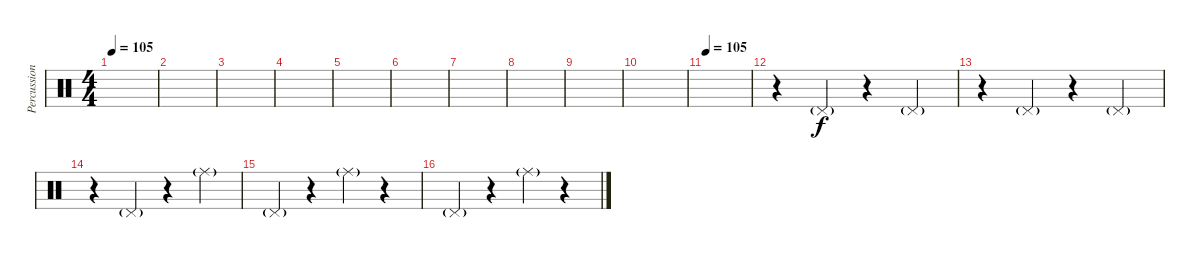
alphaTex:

\track ("Percussion" "Percussion") {instrument percussion}
\staff {score}
\articulation defaults
\ts (4 4)
\tempo 105
\clef neutral
\ks c
|
|
|
|
|
|
|
|
|
|
\tempo 105
|
r.4 "Pedal Hi-Hat (hit)"{g}.4 r.4 "Pedal Hi-Hat (hit)"{g}.4 |
r.4 "Pedal Hi-Hat (hit)"{g}.4 r.4 "Pedal Hi-Hat (hit)"{g}.4 |
r.4 "Pedal Hi-Hat (hit)"{g}.4 r.4 "Ride (middle)"{g}.4 |
"Pedal Hi-Hat (hit)"{g}.4 r.4 "Ride (middle)"{g}.4 r.4 |
"Pedal Hi-Hat (hit)"{g}.4 r.4 "Ride (middle)"{g}.4 r.4
